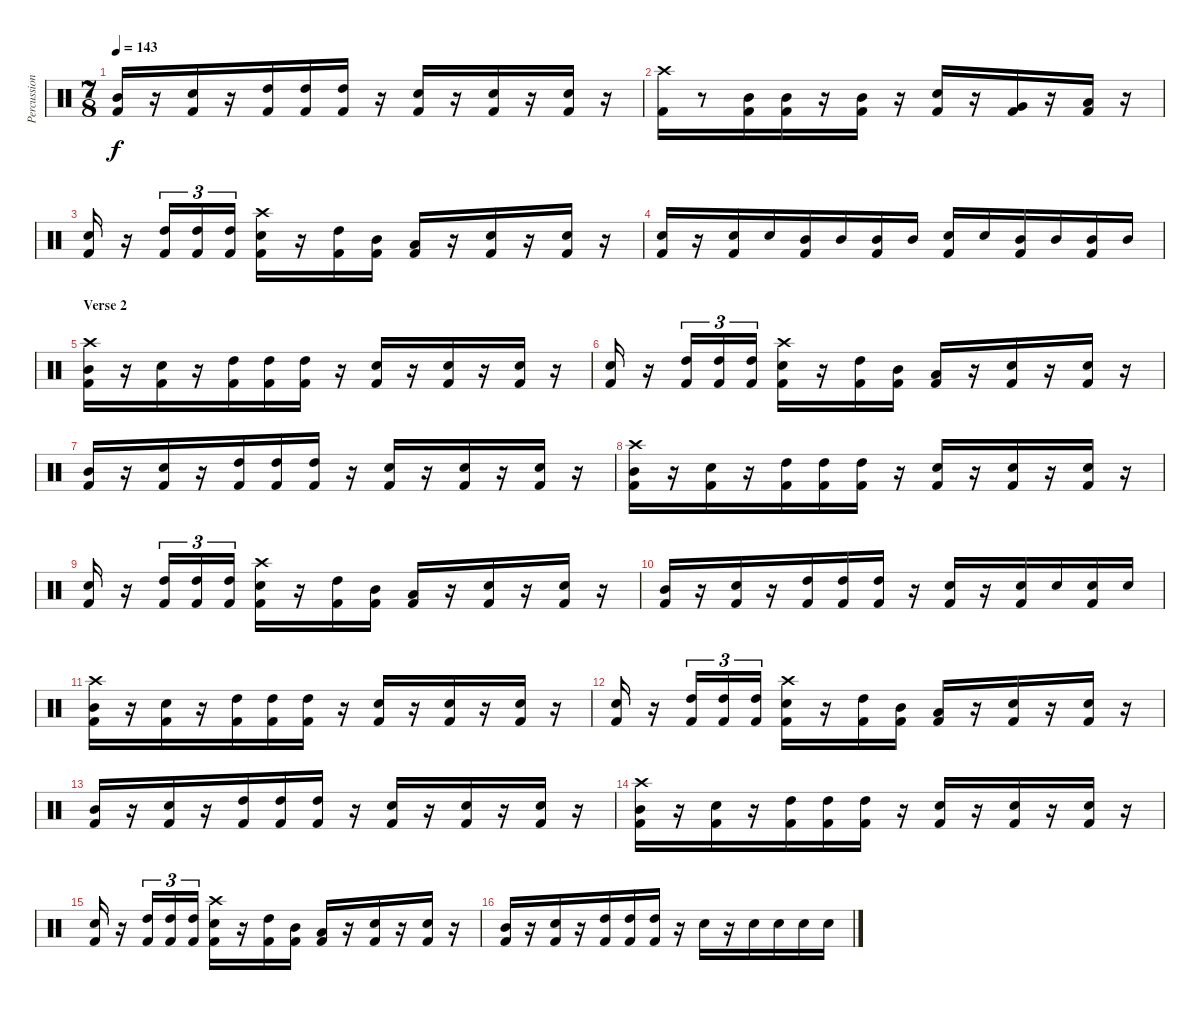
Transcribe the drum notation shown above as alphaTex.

\track ("Percussion" "Percussion") {instrument percussion}
\staff {score}
\articulation defaults
\ts (7 8)
\tempo 143
\clef neutral
\ks c
("Mid Tom (hit)" "Kick (hit) 2").16{dy f} r.16 ("Snare (hit) 2" "Kick (hit) 2").16 r.16 ("High Tom (hit)" "Kick (hit) 2").16 ("High Tom (hit)" "Kick (hit) 2").16 ("High Tom (hit)" "Kick (hit) 2").16 r.16 ("Snare (hit) 2" "Kick (hit) 2").16 r.16 ("Snare (hit) 2" "Kick (hit) 2").16 r.16 ("Snare (hit) 2" "Kick (hit) 2").16 r.16 |
("Crash high (hit)" "Kick (hit) 2").16 r.8 ("Mid Tom (hit)" "Kick (hit) 2").16 ("Mid Tom (hit)" "Kick (hit) 2").16 r.16 ("Mid Tom (hit)" "Kick (hit) 2").16 r.16 ("Snare (hit) 2" "Kick (hit) 2").16 r.16 ("Very Low Tom (hit)" "Kick (hit) 2").16 r.16 ("Low Tom (hit)" "Kick (hit) 2").16 r.16 |
("Electric Snare (hit)" "Kick (hit) 2").16 r.16 ("High Tom (hit)" "Kick (hit) 2").16{tu (3 2)} ("High Tom (hit)" "Kick (hit) 2").16{tu (3 2)} ("High Tom (hit)" "Kick (hit) 2").16{tu (3 2)} ("Crash high (hit)" "Snare (hit) 2" "Kick (hit) 2").16 r.16 ("High Tom (hit)" "Kick (hit) 2").16 ("Mid Tom (hit)" "Kick (hit) 2").16 ("Low Tom (hit)" "Kick (hit) 2").16 r.16 ("Snare (hit) 2" "Kick (hit) 2").16 r.16 ("Snare (hit) 2" "Kick (hit) 2").16 r.16 |
("Snare (hit) 2" "Kick (hit) 2").16 r.16 ("Electric Snare (hit)" "Kick (hit) 2").16 "Electric Snare (hit)".16 ("Mid Tom (hit)" "Kick (hit) 2").16 "Mid Tom (hit)".16 ("Mid Tom (hit)" "Kick (hit) 2").16 "Mid Tom (hit)".16 ("Electric Snare (hit)" "Kick (hit) 2").16 "Electric Snare (hit)".16 ("Mid Tom (hit)" "Kick (hit) 2").16 "Mid Tom (hit)".16 ("Mid Tom (hit)" "Kick (hit) 2").16 "Mid Tom (hit)".16 |
\section ("" "Verse 2")
("Crash high (hit)" "Mid Tom (hit)" "Kick (hit) 2").16 r.16 ("Snare (hit) 2" "Kick (hit) 2").16 r.16 ("High Tom (hit)" "Kick (hit) 2").16 ("High Tom (hit)" "Kick (hit) 2").16 ("High Tom (hit)" "Kick (hit) 2").16 r.16 ("Snare (hit) 2" "Kick (hit) 2").16 r.16 ("Snare (hit) 2" "Kick (hit) 2").16 r.16 ("Snare (hit) 2" "Kick (hit) 2").16 r.16 |
("Electric Snare (hit)" "Kick (hit) 2").16 r.16 ("High Tom (hit)" "Kick (hit) 2").16{tu (3 2)} ("High Tom (hit)" "Kick (hit) 2").16{tu (3 2)} ("High Tom (hit)" "Kick (hit) 2").16{tu (3 2)} ("Crash high (hit)" "Snare (hit) 2" "Kick (hit) 2").16 r.16 ("High Tom (hit)" "Kick (hit) 2").16 ("Mid Tom (hit)" "Kick (hit) 2").16 ("Low Tom (hit)" "Kick (hit) 2").16 r.16 ("Snare (hit) 2" "Kick (hit) 2").16 r.16 ("Snare (hit) 2" "Kick (hit) 2").16 r.16 |
("Mid Tom (hit)" "Kick (hit) 2").16 r.16 ("Snare (hit) 2" "Kick (hit) 2").16 r.16 ("High Tom (hit)" "Kick (hit) 2").16 ("High Tom (hit)" "Kick (hit) 2").16 ("High Tom (hit)" "Kick (hit) 2").16 r.16 ("Snare (hit) 2" "Kick (hit) 2").16 r.16 ("Snare (hit) 2" "Kick (hit) 2").16 r.16 ("Snare (hit) 2" "Kick (hit) 2").16 r.16 |
("Crash high (hit)" "Mid Tom (hit)" "Kick (hit) 2").16 r.16 ("Snare (hit) 2" "Kick (hit) 2").16 r.16 ("High Tom (hit)" "Kick (hit) 2").16 ("High Tom (hit)" "Kick (hit) 2").16 ("High Tom (hit)" "Kick (hit) 2").16 r.16 ("Snare (hit) 2" "Kick (hit) 2").16 r.16 ("Snare (hit) 2" "Kick (hit) 2").16 r.16 ("Snare (hit) 2" "Kick (hit) 2").16 r.16 |
("Electric Snare (hit)" "Kick (hit) 2").16 r.16 ("High Tom (hit)" "Kick (hit) 2").16{tu (3 2)} ("High Tom (hit)" "Kick (hit) 2").16{tu (3 2)} ("High Tom (hit)" "Kick (hit) 2").16{tu (3 2)} ("Crash high (hit)" "Snare (hit) 2" "Kick (hit) 2").16 r.16 ("High Tom (hit)" "Kick (hit) 2").16 ("Mid Tom (hit)" "Kick (hit) 2").16 ("Low Tom (hit)" "Kick (hit) 2").16 r.16 ("Snare (hit) 2" "Kick (hit) 2").16 r.16 ("Snare (hit) 2" "Kick (hit) 2").16 r.16 |
("Mid Tom (hit)" "Kick (hit) 2").16 r.16 ("Snare (hit) 2" "Kick (hit) 2").16 r.16 ("High Tom (hit)" "Kick (hit) 2").16 ("High Tom (hit)" "Kick (hit) 2").16 ("High Tom (hit)" "Kick (hit) 2").16 r.16 ("Snare (hit) 2" "Kick (hit) 2").16 r.16 ("Snare (hit) 2" "Kick (hit) 2").16 "Snare (hit) 2".16 ("Snare (hit) 2" "Kick (hit) 2").16 "Snare (hit) 2".16 |
("Crash high (hit)" "Mid Tom (hit)" "Kick (hit) 2").16 r.16 ("Snare (hit) 2" "Kick (hit) 2").16 r.16 ("High Tom (hit)" "Kick (hit) 2").16 ("High Tom (hit)" "Kick (hit) 2").16 ("High Tom (hit)" "Kick (hit) 2").16 r.16 ("Snare (hit) 2" "Kick (hit) 2").16 r.16 ("Snare (hit) 2" "Kick (hit) 2").16 r.16 ("Snare (hit) 2" "Kick (hit) 2").16 r.16 |
("Electric Snare (hit)" "Kick (hit) 2").16 r.16 ("High Tom (hit)" "Kick (hit) 2").16{tu (3 2)} ("High Tom (hit)" "Kick (hit) 2").16{tu (3 2)} ("High Tom (hit)" "Kick (hit) 2").16{tu (3 2)} ("Crash high (hit)" "Snare (hit) 2" "Kick (hit) 2").16 r.16 ("High Tom (hit)" "Kick (hit) 2").16 ("Mid Tom (hit)" "Kick (hit) 2").16 ("Low Tom (hit)" "Kick (hit) 2").16 r.16 ("Snare (hit) 2" "Kick (hit) 2").16 r.16 ("Snare (hit) 2" "Kick (hit) 2").16 r.16 |
("Mid Tom (hit)" "Kick (hit) 2").16 r.16 ("Snare (hit) 2" "Kick (hit) 2").16 r.16 ("High Tom (hit)" "Kick (hit) 2").16 ("High Tom (hit)" "Kick (hit) 2").16 ("High Tom (hit)" "Kick (hit) 2").16 r.16 ("Snare (hit) 2" "Kick (hit) 2").16 r.16 ("Snare (hit) 2" "Kick (hit) 2").16 r.16 ("Snare (hit) 2" "Kick (hit) 2").16 r.16 |
("Crash high (hit)" "Mid Tom (hit)" "Kick (hit) 2").16 r.16 ("Snare (hit) 2" "Kick (hit) 2").16 r.16 ("High Tom (hit)" "Kick (hit) 2").16 ("High Tom (hit)" "Kick (hit) 2").16 ("High Tom (hit)" "Kick (hit) 2").16 r.16 ("Snare (hit) 2" "Kick (hit) 2").16 r.16 ("Snare (hit) 2" "Kick (hit) 2").16 r.16 ("Snare (hit) 2" "Kick (hit) 2").16 r.16 |
("Electric Snare (hit)" "Kick (hit) 2").16 r.16 ("High Tom (hit)" "Kick (hit) 2").16{tu (3 2)} ("High Tom (hit)" "Kick (hit) 2").16{tu (3 2)} ("High Tom (hit)" "Kick (hit) 2").16{tu (3 2)} ("Crash high (hit)" "Snare (hit) 2" "Kick (hit) 2").16 r.16 ("High Tom (hit)" "Kick (hit) 2").16 ("Mid Tom (hit)" "Kick (hit) 2").16 ("Low Tom (hit)" "Kick (hit) 2").16 r.16 ("Snare (hit) 2" "Kick (hit) 2").16 r.16 ("Snare (hit) 2" "Kick (hit) 2").16 r.16 |
("Mid Tom (hit)" "Kick (hit) 2").16 r.16 ("Snare (hit) 2" "Kick (hit) 2").16 r.16 ("High Tom (hit)" "Kick (hit) 2").16 ("High Tom (hit)" "Kick (hit) 2").16 ("High Tom (hit)" "Kick (hit) 2").16 r.16 "Snare (hit) 2".16 r.16 "Snare (hit) 2".16 "Snare (hit) 2".16 "Snare (hit) 2".16 "Snare (hit) 2".16
